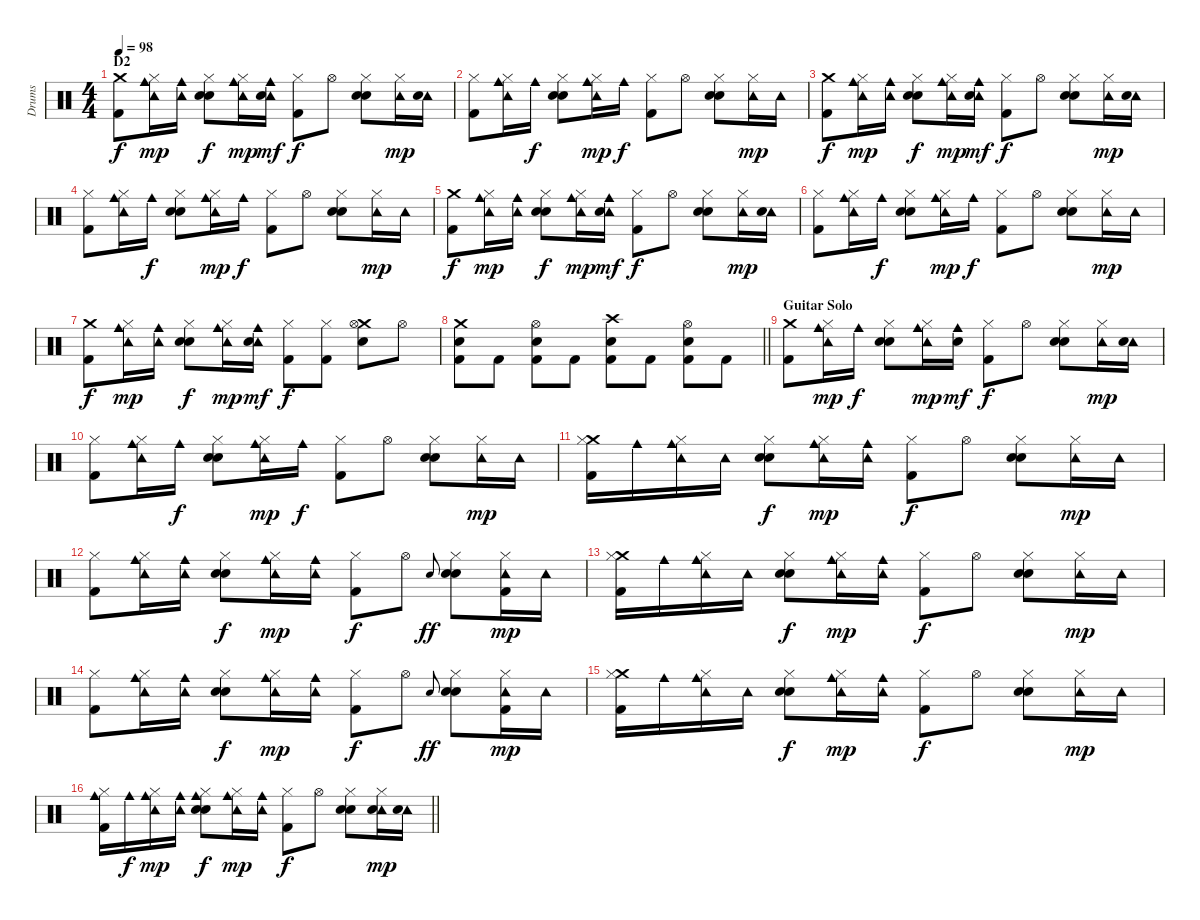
\track ("Drums" "Drums") {instrument percussion}
\staff {score}
\articulation defaults
\ts (4 4)
\section ("" "D2")
\tempo 98
\clef neutral
\ks c
("Crash medium (hit)" "Kick (hit) 2").8{dy f} ("Cowbell medium (hit)" "Tambourine (hit)" "Hi-Hat (closed)").16{dy mp} ("Cowbell medium (hit)" "Tambourine (hit)").16 ("Hand Clap (hit)" "Hi-Hat (closed)" "Electric Snare (hit)").8{dy f} ("Cowbell medium (hit)" "Tambourine (hit)" "Hi-Hat (closed)").16{dy mp} ("Cowbell medium (hit)" "Tambourine (hit)" "Electric Snare (hit)").16{dy mf} ("Hi-Hat (closed)" "Kick (hit) 2").8{dy f} "Hi-Hat (open)".8 ("Hand Clap (hit)" "Hi-Hat (closed)" "Electric Snare (hit)").8 ("Tambourine (hit)" "Hi-Hat (closed)").16{dy mp} ("Tambourine (hit)" "Electric Snare (hit)").16 |
("Hi-Hat (closed)" "Kick (hit) 2").8 ("Cowbell medium (hit)" "Tambourine (hit)" "Hi-Hat (closed)").16 "Cowbell medium (hit)".16{dy f} ("Hand Clap (hit)" "Hi-Hat (closed)" "Electric Snare (hit)").8 ("Cowbell medium (hit)" "Tambourine (hit)" "Hi-Hat (closed)").16{dy mp} "Cowbell medium (hit)".16{dy f} ("Hi-Hat (closed)" "Kick (hit) 2").8 "Hi-Hat (open)".8 ("Hand Clap (hit)" "Hi-Hat (closed)" "Electric Snare (hit)").8 ("Tambourine (hit)" "Hi-Hat (closed)").16{dy mp} "Tambourine (hit)".16 |
("Crash medium (hit)" "Kick (hit) 2").8{dy f} ("Cowbell medium (hit)" "Tambourine (hit)" "Hi-Hat (closed)").16{dy mp} ("Cowbell medium (hit)" "Tambourine (hit)").16 ("Hand Clap (hit)" "Hi-Hat (closed)" "Electric Snare (hit)").8{dy f} ("Cowbell medium (hit)" "Tambourine (hit)" "Hi-Hat (closed)").16{dy mp} ("Cowbell medium (hit)" "Tambourine (hit)" "Electric Snare (hit)").16{dy mf} ("Hi-Hat (closed)" "Kick (hit) 2").8{dy f} "Hi-Hat (open)".8 ("Hand Clap (hit)" "Hi-Hat (closed)" "Electric Snare (hit)").8 ("Tambourine (hit)" "Hi-Hat (closed)").16{dy mp} ("Tambourine (hit)" "Electric Snare (hit)").16 |
("Hi-Hat (closed)" "Kick (hit) 2").8 ("Cowbell medium (hit)" "Tambourine (hit)" "Hi-Hat (closed)").16 "Cowbell medium (hit)".16{dy f} ("Hand Clap (hit)" "Hi-Hat (closed)" "Electric Snare (hit)").8 ("Cowbell medium (hit)" "Tambourine (hit)" "Hi-Hat (closed)").16{dy mp} "Cowbell medium (hit)".16{dy f} ("Hi-Hat (closed)" "Kick (hit) 2").8 "Hi-Hat (open)".8 ("Hand Clap (hit)" "Hi-Hat (closed)" "Electric Snare (hit)").8 ("Tambourine (hit)" "Hi-Hat (closed)").16{dy mp} "Tambourine (hit)".16 |
("Crash medium (hit)" "Kick (hit) 2").8{dy f} ("Cowbell medium (hit)" "Tambourine (hit)" "Hi-Hat (closed)").16{dy mp} ("Cowbell medium (hit)" "Tambourine (hit)").16 ("Hand Clap (hit)" "Hi-Hat (closed)" "Electric Snare (hit)").8{dy f} ("Cowbell medium (hit)" "Tambourine (hit)" "Hi-Hat (closed)").16{dy mp} ("Cowbell medium (hit)" "Tambourine (hit)" "Electric Snare (hit)").16{dy mf} ("Hi-Hat (closed)" "Kick (hit) 2").8{dy f} "Hi-Hat (open)".8 ("Hand Clap (hit)" "Hi-Hat (closed)" "Electric Snare (hit)").8 ("Tambourine (hit)" "Hi-Hat (closed)").16{dy mp} ("Tambourine (hit)" "Electric Snare (hit)").16 |
("Hi-Hat (closed)" "Kick (hit) 2").8 ("Cowbell medium (hit)" "Tambourine (hit)" "Hi-Hat (closed)").16 "Cowbell medium (hit)".16{dy f} ("Hand Clap (hit)" "Hi-Hat (closed)" "Electric Snare (hit)").8 ("Cowbell medium (hit)" "Tambourine (hit)" "Hi-Hat (closed)").16{dy mp} "Cowbell medium (hit)".16{dy f} ("Hi-Hat (closed)" "Kick (hit) 2").8 "Hi-Hat (open)".8 ("Hand Clap (hit)" "Hi-Hat (closed)" "Electric Snare (hit)").8 ("Tambourine (hit)" "Hi-Hat (closed)").16{dy mp} "Tambourine (hit)".16 |
("Crash medium (hit)" "Kick (hit) 2").8{dy f} ("Cowbell medium (hit)" "Tambourine (hit)" "Hi-Hat (closed)").16{dy mp} ("Cowbell medium (hit)" "Tambourine (hit)").16 ("Hand Clap (hit)" "Hi-Hat (closed)" "Electric Snare (hit)").8{dy f} ("Cowbell medium (hit)" "Tambourine (hit)" "Hi-Hat (closed)").16{dy mp} ("Cowbell medium (hit)" "Tambourine (hit)" "Electric Snare (hit)").16{dy mf} ("Hi-Hat (closed)" "Kick (hit) 2").8{dy f} ("Hi-Hat (closed)" "Kick (hit) 2").8 ("Crash medium (hit)" "Hi-Hat (open)" "Electric Snare (hit)").8 "Hi-Hat (open)".8 |
\barLineRight lightlight
("Crash medium (hit)" "Electric Snare (hit)" "Kick (hit) 2").8 "Kick (hit) 2".8 ("Hi-Hat (open)" "Electric Snare (hit)" "Kick (hit) 2").8 "Kick (hit) 2".8 ("Crash high (hit)" "Electric Snare (hit)" "Kick (hit) 2").8 "Kick (hit) 2".8 ("Hi-Hat (open)" "Electric Snare (hit)" "Kick (hit) 2").8 "Kick (hit) 2".8 |
\section ("" "Guitar Solo")
("Crash medium (hit)" "Kick (hit) 2").8 ("Cowbell medium (hit)" "Tambourine (hit)" "Hi-Hat (closed)").16{dy mp} "Cowbell medium (hit)".16{dy f} ("Hand Clap (hit)" "Hi-Hat (closed)" "Electric Snare (hit)").8 ("Cowbell medium (hit)" "Tambourine (hit)" "Hi-Hat (closed)").16{dy mp} ("Cowbell medium (hit)" "Electric Snare (hit)").16{dy mf} ("Hi-Hat (closed)" "Kick (hit) 2").8{dy f} "Hi-Hat (open)".8 ("Hand Clap (hit)" "Hi-Hat (closed)" "Electric Snare (hit)").8 ("Tambourine (hit)" "Hi-Hat (closed)").16{dy mp} ("Tambourine (hit)" "Electric Snare (hit)").16 |
("Hi-Hat (closed)" "Kick (hit) 2").8 ("Cowbell medium (hit)" "Tambourine (hit)" "Hi-Hat (closed)").16 "Cowbell medium (hit)".16{dy f} ("Hand Clap (hit)" "Hi-Hat (closed)" "Electric Snare (hit)").8 ("Cowbell medium (hit)" "Tambourine (hit)" "Hi-Hat (closed)").16{dy mp} "Cowbell medium (hit)".16{dy f} ("Hi-Hat (closed)" "Kick (hit) 2").8 "Hi-Hat (open)".8 ("Hand Clap (hit)" "Hi-Hat (closed)" "Electric Snare (hit)").8 ("Tambourine (hit)" "Hi-Hat (closed)").16{dy mp} "Tambourine (hit)".16 |
("Crash medium (hit)" "Hi-Hat (closed)" "Kick (hit) 2").16 "Cowbell medium (hit)".16 ("Cowbell medium (hit)" "Tambourine (hit)" "Hi-Hat (closed)").16 "Tambourine (hit)".16 ("Hand Clap (hit)" "Hi-Hat (closed)" "Electric Snare (hit)").8{dy f} ("Cowbell medium (hit)" "Tambourine (hit)" "Hi-Hat (closed)").16{dy mp} ("Cowbell medium (hit)" "Tambourine (hit)").16 ("Hi-Hat (closed)" "Kick (hit) 2").8{dy f} "Hi-Hat (open)".8 ("Hand Clap (hit)" "Hi-Hat (closed)" "Electric Snare (hit)").8 ("Tambourine (hit)" "Hi-Hat (closed)").16{dy mp} "Tambourine (hit)".16 |
("Hi-Hat (closed)" "Kick (hit) 2").8 ("Cowbell medium (hit)" "Tambourine (hit)" "Hi-Hat (closed)").16 ("Cowbell medium (hit)" "Tambourine (hit)").16 ("Hand Clap (hit)" "Hi-Hat (closed)" "Electric Snare (hit)").8{dy f} ("Cowbell medium (hit)" "Tambourine (hit)" "Hi-Hat (closed)").16{dy mp} ("Cowbell medium (hit)" "Tambourine (hit)").16 ("Hi-Hat (closed)" "Kick (hit) 2").8{dy f} "Hi-Hat (open)".8 "Electric Snare (hit)".8{gr onbeat dy ff} ("Hand Clap (hit)" "Hi-Hat (closed)" "Electric Snare (hit)").8 ("Tambourine (hit)" "Hi-Hat (closed)" "Kick (hit) 2").16{dy mp} "Tambourine (hit)".16 |
("Crash medium (hit)" "Hi-Hat (closed)" "Kick (hit) 2").16 "Cowbell medium (hit)".16 ("Cowbell medium (hit)" "Tambourine (hit)" "Hi-Hat (closed)").16 "Tambourine (hit)".16 ("Hand Clap (hit)" "Hi-Hat (closed)" "Electric Snare (hit)").8{dy f} ("Cowbell medium (hit)" "Tambourine (hit)" "Hi-Hat (closed)").16{dy mp} ("Cowbell medium (hit)" "Tambourine (hit)").16 ("Hi-Hat (closed)" "Kick (hit) 2").8{dy f} "Hi-Hat (open)".8 ("Hand Clap (hit)" "Hi-Hat (closed)" "Electric Snare (hit)").8 ("Tambourine (hit)" "Hi-Hat (closed)").16{dy mp} "Tambourine (hit)".16 |
("Hi-Hat (closed)" "Kick (hit) 2").8 ("Cowbell medium (hit)" "Tambourine (hit)" "Hi-Hat (closed)").16 ("Cowbell medium (hit)" "Tambourine (hit)").16 ("Hand Clap (hit)" "Hi-Hat (closed)" "Electric Snare (hit)").8{dy f} ("Cowbell medium (hit)" "Tambourine (hit)" "Hi-Hat (closed)").16{dy mp} ("Cowbell medium (hit)" "Tambourine (hit)").16 ("Hi-Hat (closed)" "Kick (hit) 2").8{dy f} "Hi-Hat (open)".8 "Electric Snare (hit)".8{gr onbeat dy ff} ("Hand Clap (hit)" "Hi-Hat (closed)" "Electric Snare (hit)").8 ("Tambourine (hit)" "Hi-Hat (closed)" "Kick (hit) 2").16{dy mp} "Tambourine (hit)".16 |
("Crash medium (hit)" "Hi-Hat (closed)" "Kick (hit) 2").16 "Cowbell medium (hit)".16 ("Cowbell medium (hit)" "Tambourine (hit)" "Hi-Hat (closed)").16 "Tambourine (hit)".16 ("Hand Clap (hit)" "Hi-Hat (closed)" "Electric Snare (hit)").8{dy f} ("Cowbell medium (hit)" "Tambourine (hit)" "Hi-Hat (closed)").16{dy mp} ("Cowbell medium (hit)" "Tambourine (hit)").16 ("Hi-Hat (closed)" "Kick (hit) 2").8{dy f} "Hi-Hat (open)".8 ("Hand Clap (hit)" "Hi-Hat (closed)" "Electric Snare (hit)").8 ("Tambourine (hit)" "Hi-Hat (closed)").16{dy mp} "Tambourine (hit)".16 |
\barLineRight lightlight
("Cowbell medium (hit)" "Hi-Hat (closed)" "Kick (hit) 2").16 "Cowbell medium (hit)".16{dy f} ("Cowbell medium (hit)" "Tambourine (hit)" "Hi-Hat (closed)").16{dy mp} ("Cowbell medium (hit)" "Tambourine (hit)").16 ("Hand Clap (hit)" "Cowbell medium (hit)" "Hi-Hat (closed)" "Electric Snare (hit)").8{dy f} ("Cowbell medium (hit)" "Tambourine (hit)" "Hi-Hat (closed)").16{dy mp} ("Cowbell medium (hit)" "Tambourine (hit)").16 ("Hi-Hat (closed)" "Kick (hit) 2").8{dy f} "Hi-Hat (open)".8 ("Hand Clap (hit)" "Hi-Hat (closed)" "Electric Snare (hit)").8 ("Tambourine (hit)" "Hi-Hat (closed)" "Electric Snare (hit)").16{dy mp} ("Tambourine (hit)" "Electric Snare (hit)").16
